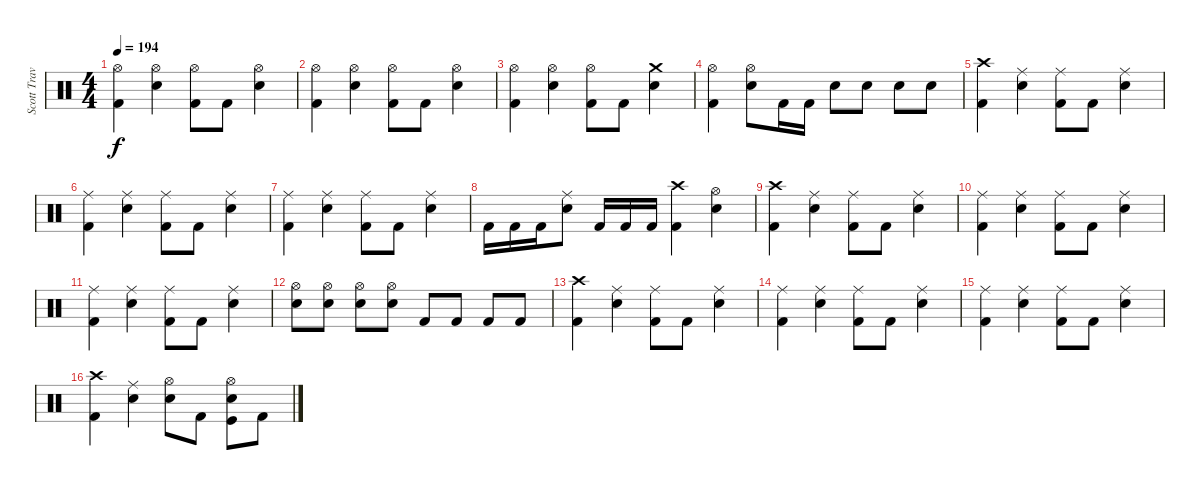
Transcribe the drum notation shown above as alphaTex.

\track ("Scott Travis" "Scott Trav") {instrument percussion}
\staff {score}
\articulation defaults
\ts (4 4)
\tempo 194
\clef neutral
\ks c
("Kick (hit) 2" "Hi-Hat (open)").4{dy f} ("Hi-Hat (open)" "Snare (hit) 2").4 ("Hi-Hat (open)" "Kick (hit) 2").8 "Kick (hit) 2".8 ("Snare (hit) 2" "Hi-Hat (open)").4 |
("Kick (hit) 2" "Hi-Hat (open)").4 ("Hi-Hat (open)" "Snare (hit) 2").4 ("Hi-Hat (open)" "Kick (hit) 2").8 "Kick (hit) 2".8 ("Snare (hit) 2" "Hi-Hat (open)").4 |
("Kick (hit) 2" "Hi-Hat (open)").4 ("Hi-Hat (open)" "Snare (hit) 2").4 ("Hi-Hat (open)" "Kick (hit) 2").8 "Kick (hit) 2".8 ("Snare (hit) 2" "Crash medium (hit)").4 |
("Kick (hit) 2" "Hi-Hat (open)").4 ("Hi-Hat (open)" "Snare (hit) 2").8 "Kick (hit) 2".16 "Kick (hit) 2".16 "Snare (hit) 2".8 "Snare (hit) 2".8 "Snare (hit) 2".8 "Snare (hit) 2".8 |
("Kick (hit) 2" "Crash high (hit)").4 ("Ride (middle)" "Snare (hit) 2").4 ("Ride (middle)" "Kick (hit) 2").8 "Kick (hit) 2".8 ("Snare (hit) 2" "Ride (middle)").4 |
("Kick (hit) 2" "Ride (middle)").4 ("Ride (middle)" "Snare (hit) 2").4 ("Ride (middle)" "Kick (hit) 2").8 "Kick (hit) 2".8 ("Snare (hit) 2" "Ride (middle)").4 |
("Kick (hit) 2" "Ride (middle)").4 ("Ride (middle)" "Snare (hit) 2").4 ("Ride (middle)" "Kick (hit) 2").8 "Kick (hit) 2".8 ("Snare (hit) 2" "Ride (middle)").4 |
"Kick (hit) 2".16 "Kick (hit) 2".16 "Kick (hit) 2".16 ("Ride (middle)" "Snare (hit) 2").8 "Kick (hit) 2".16 "Kick (hit) 2".16 "Kick (hit) 2".16 ("Crash high (hit)" "Kick (hit) 2").4 ("Hi-Hat (open)" "Snare (hit) 2").4 |
("Kick (hit) 2" "Crash high (hit)").4 ("Ride (middle)" "Snare (hit) 2").4 ("Ride (middle)" "Kick (hit) 2").8 "Kick (hit) 2".8 ("Snare (hit) 2" "Ride (middle)").4 |
("Kick (hit) 2" "Ride (middle)").4 ("Ride (middle)" "Snare (hit) 2").4 ("Ride (middle)" "Kick (hit) 2").8 "Kick (hit) 2".8 ("Snare (hit) 2" "Ride (middle)").4 |
("Kick (hit) 2" "Ride (middle)").4 ("Ride (middle)" "Snare (hit) 2").4 ("Ride (middle)" "Kick (hit) 2").8 "Kick (hit) 2".8 ("Snare (hit) 2" "Ride (middle)").4 |
("Hi-Hat (open)" "Snare (hit) 2").8 ("Hi-Hat (open)" "Snare (hit) 2").8 ("Hi-Hat (open)" "Snare (hit) 2").8 ("Hi-Hat (open)" "Snare (hit) 2").8 "Kick (hit) 2".8 "Kick (hit) 2".8 "Kick (hit) 2".8 "Kick (hit) 2".8 |
("Kick (hit) 2" "Crash high (hit)").4 ("Ride (middle)" "Snare (hit) 2").4 ("Ride (middle)" "Kick (hit) 2").8 "Kick (hit) 2".8 ("Snare (hit) 2" "Ride (middle)").4 |
("Kick (hit) 2" "Ride (middle)").4 ("Ride (middle)" "Snare (hit) 2").4 ("Ride (middle)" "Kick (hit) 2").8 "Kick (hit) 2".8 ("Snare (hit) 2" "Ride (middle)").4 |
("Kick (hit) 2" "Ride (middle)").4 ("Ride (middle)" "Snare (hit) 2").4 ("Ride (middle)" "Kick (hit) 2").8 "Kick (hit) 2".8 ("Snare (hit) 2" "Ride (middle)").4 |
("Kick (hit) 2" "Crash high (hit)").4 ("Ride (middle)" "Snare (hit) 2").4 ("Hi-Hat (open)" "Snare (hit) 2").8 "Kick (hit) 2".8 ("Hi-Hat (open)" "Snare (hit) 2" "Kick (hit)").8 "Kick (hit) 2".8
